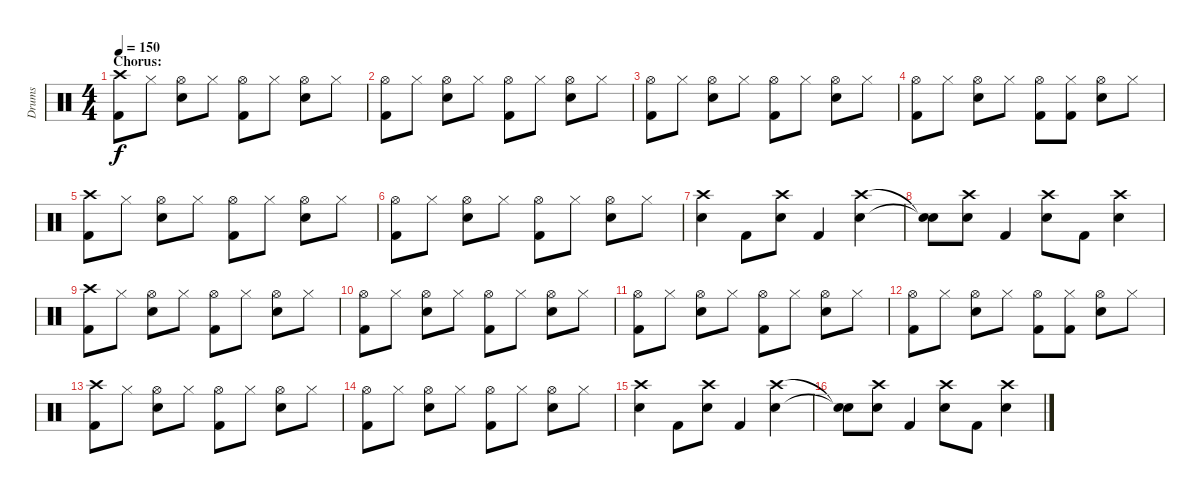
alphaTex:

\track ("Drums" "Drums") {instrument percussion}
\staff {score}
\articulation defaults
\ts (4 4)
\section ("" "Chorus:")
\tempo 150
\clef neutral
\ks c
("Crash high (hit)" "Kick (hit) 2").8{dy f} "Hi-Hat (closed)".8 ("Hi-Hat (open)" "Snare (hit) 2").8 "Hi-Hat (closed)".8 ("Hi-Hat (open)" "Kick (hit) 2").8 "Hi-Hat (closed)".8 ("Hi-Hat (open)" "Snare (hit) 2").8 "Hi-Hat (closed)".8 |
("Hi-Hat (open)" "Kick (hit) 2").8 "Hi-Hat (closed)".8 ("Hi-Hat (open)" "Snare (hit) 2").8 "Hi-Hat (closed)".8 ("Hi-Hat (open)" "Kick (hit) 2").8 "Hi-Hat (closed)".8 ("Hi-Hat (open)" "Snare (hit) 2").8 "Hi-Hat (closed)".8 |
("Hi-Hat (open)" "Kick (hit) 2").8 "Hi-Hat (closed)".8 ("Hi-Hat (open)" "Snare (hit) 2").8 "Hi-Hat (closed)".8 ("Hi-Hat (open)" "Kick (hit) 2").8 "Hi-Hat (closed)".8 ("Hi-Hat (open)" "Snare (hit) 2").8 "Hi-Hat (closed)".8 |
("Hi-Hat (open)" "Kick (hit) 2").8 "Hi-Hat (closed)".8 ("Hi-Hat (open)" "Snare (hit) 2").8 "Hi-Hat (closed)".8 ("Hi-Hat (open)" "Kick (hit) 2").8 ("Hi-Hat (closed)" "Kick (hit) 2").8 ("Hi-Hat (open)" "Snare (hit) 2").8 "Hi-Hat (closed)".8 |
("Crash high (hit)" "Kick (hit) 2").8 "Hi-Hat (closed)".8 ("Hi-Hat (open)" "Snare (hit) 2").8 "Hi-Hat (closed)".8 ("Hi-Hat (open)" "Kick (hit) 2").8 "Hi-Hat (closed)".8 ("Hi-Hat (open)" "Snare (hit) 2").8 "Hi-Hat (closed)".8 |
("Hi-Hat (open)" "Kick (hit) 2").8 "Hi-Hat (closed)".8 ("Hi-Hat (open)" "Snare (hit) 2").8 "Hi-Hat (closed)".8 ("Hi-Hat (open)" "Kick (hit) 2").8 "Hi-Hat (closed)".8 ("Hi-Hat (open)" "Snare (hit) 2").8 "Hi-Hat (closed)".8 |
("Crash high (hit)" "Snare (hit) 2").4 "Kick (hit) 2".8 ("Crash high (hit)" "Snare (hit) 2").8 "Kick (hit) 2".4 ("Crash high (hit)" "Snare (hit) 2").4 |
("Snare (hit)"{t} "Snare (hit)"{t}).8 ("Crash high (hit)" "Snare (hit) 2").8 "Kick (hit) 2".4 ("Crash high (hit)" "Snare (hit) 2").8 "Kick (hit) 2".8 ("Crash high (hit)" "Snare (hit) 2").4 |
("Crash high (hit)" "Kick (hit) 2").8 "Hi-Hat (closed)".8 ("Hi-Hat (open)" "Snare (hit) 2").8 "Hi-Hat (closed)".8 ("Hi-Hat (open)" "Kick (hit) 2").8 "Hi-Hat (closed)".8 ("Hi-Hat (open)" "Snare (hit) 2").8 "Hi-Hat (closed)".8 |
("Hi-Hat (open)" "Kick (hit) 2").8 "Hi-Hat (closed)".8 ("Hi-Hat (open)" "Snare (hit) 2").8 "Hi-Hat (closed)".8 ("Hi-Hat (open)" "Kick (hit) 2").8 "Hi-Hat (closed)".8 ("Hi-Hat (open)" "Snare (hit) 2").8 "Hi-Hat (closed)".8 |
("Hi-Hat (open)" "Kick (hit) 2").8 "Hi-Hat (closed)".8 ("Hi-Hat (open)" "Snare (hit) 2").8 "Hi-Hat (closed)".8 ("Hi-Hat (open)" "Kick (hit) 2").8 "Hi-Hat (closed)".8 ("Hi-Hat (open)" "Snare (hit) 2").8 "Hi-Hat (closed)".8 |
("Hi-Hat (open)" "Kick (hit) 2").8 "Hi-Hat (closed)".8 ("Hi-Hat (open)" "Snare (hit) 2").8 "Hi-Hat (closed)".8 ("Hi-Hat (open)" "Kick (hit) 2").8 ("Hi-Hat (closed)" "Kick (hit) 2").8 ("Hi-Hat (open)" "Snare (hit) 2").8 "Hi-Hat (closed)".8 |
("Crash high (hit)" "Kick (hit) 2").8 "Hi-Hat (closed)".8 ("Hi-Hat (open)" "Snare (hit) 2").8 "Hi-Hat (closed)".8 ("Hi-Hat (open)" "Kick (hit) 2").8 "Hi-Hat (closed)".8 ("Hi-Hat (open)" "Snare (hit) 2").8 "Hi-Hat (closed)".8 |
("Hi-Hat (open)" "Kick (hit) 2").8 "Hi-Hat (closed)".8 ("Hi-Hat (open)" "Snare (hit) 2").8 "Hi-Hat (closed)".8 ("Hi-Hat (open)" "Kick (hit) 2").8 "Hi-Hat (closed)".8 ("Hi-Hat (open)" "Snare (hit) 2").8 "Hi-Hat (closed)".8 |
("Crash high (hit)" "Snare (hit) 2").4 "Kick (hit) 2".8 ("Crash high (hit)" "Snare (hit) 2").8 "Kick (hit) 2".4 ("Crash high (hit)" "Snare (hit) 2").4 |
("Snare (hit)"{t} "Snare (hit)"{t}).8 ("Crash high (hit)" "Snare (hit) 2").8 "Kick (hit) 2".4 ("Crash high (hit)" "Snare (hit) 2").8 "Kick (hit) 2".8 ("Crash high (hit)" "Snare (hit) 2").4
